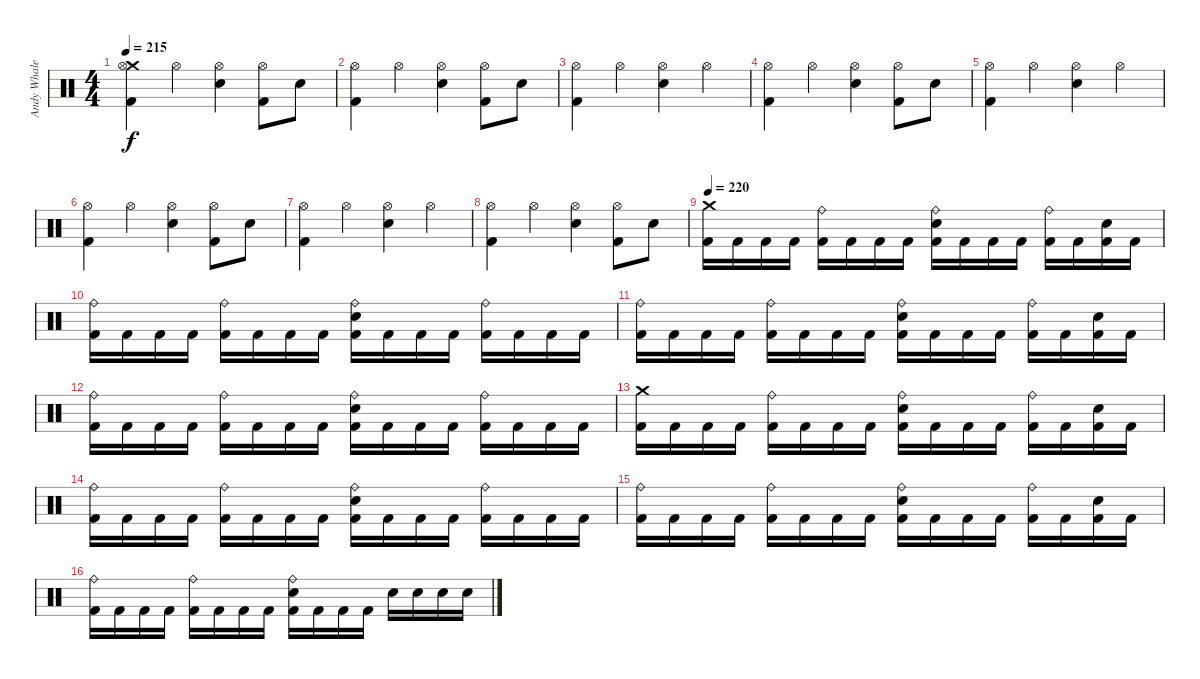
\track ("Andy Whale" "Andy Whale") {instrument percussion}
\staff {score}
\articulation defaults
\ts (4 4)
\tempo 215
\clef neutral
\ks c
("Crash medium (hit)" "Hi-Hat (open)" "Kick (hit) 2").4{dy f} "Hi-Hat (open)".4 ("Hi-Hat (open)" "Electric Snare (hit)").4 ("Hi-Hat (open)" "Kick (hit) 2").8 "Electric Snare (hit)".8 |
("Hi-Hat (open)" "Kick (hit) 2").4 "Hi-Hat (open)".4 ("Hi-Hat (open)" "Electric Snare (hit)").4 ("Hi-Hat (open)" "Kick (hit) 2").8 "Electric Snare (hit)".8 |
("Hi-Hat (open)" "Kick (hit) 2").4 "Hi-Hat (open)".4 ("Hi-Hat (open)" "Electric Snare (hit)").4 "Hi-Hat (open)".4 |
("Hi-Hat (open)" "Kick (hit) 2").4 "Hi-Hat (open)".4 ("Hi-Hat (open)" "Electric Snare (hit)").4 ("Hi-Hat (open)" "Kick (hit) 2").8 "Electric Snare (hit)".8 |
("Hi-Hat (open)" "Kick (hit) 2").4 "Hi-Hat (open)".4 ("Hi-Hat (open)" "Electric Snare (hit)").4 "Hi-Hat (open)".4 |
("Hi-Hat (open)" "Kick (hit) 2").4 "Hi-Hat (open)".4 ("Hi-Hat (open)" "Electric Snare (hit)").4 ("Hi-Hat (open)" "Kick (hit) 2").8 "Electric Snare (hit)".8 |
("Hi-Hat (open)" "Kick (hit) 2").4 "Hi-Hat (open)".4 ("Hi-Hat (open)" "Electric Snare (hit)").4 "Hi-Hat (open)".4 |
("Hi-Hat (open)" "Kick (hit) 2").4 "Hi-Hat (open)".4 ("Hi-Hat (open)" "Electric Snare (hit)").4 ("Hi-Hat (open)" "Kick (hit) 2").8 "Electric Snare (hit)".8 |
\tempo 220
("Crash medium (hit)" "Kick (hit) 2").16 "Kick (hit) 2".16 "Kick (hit) 2".16 "Kick (hit) 2".16 ("Ride (bell)" "Kick (hit) 2").16 "Kick (hit) 2".16 "Kick (hit) 2".16 "Kick (hit) 2".16 ("Ride (bell)" "Electric Snare (hit)" "Kick (hit) 2").16 "Kick (hit) 2".16 "Kick (hit) 2".16 "Kick (hit) 2".16 ("Ride (bell)" "Kick (hit) 2").16 "Kick (hit) 2".16 ("Electric Snare (hit)" "Kick (hit) 2").16 "Kick (hit) 2".16 |
("Ride (bell)" "Kick (hit) 2").16 "Kick (hit) 2".16 "Kick (hit) 2".16 "Kick (hit) 2".16 ("Ride (bell)" "Kick (hit) 2").16 "Kick (hit) 2".16 "Kick (hit) 2".16 "Kick (hit) 2".16 ("Ride (bell)" "Electric Snare (hit)" "Kick (hit) 2").16 "Kick (hit) 2".16 "Kick (hit) 2".16 "Kick (hit) 2".16 ("Ride (bell)" "Kick (hit) 2").16 "Kick (hit) 2".16 "Kick (hit) 2".16 "Kick (hit) 2".16 |
("Ride (bell)" "Kick (hit) 2").16 "Kick (hit) 2".16 "Kick (hit) 2".16 "Kick (hit) 2".16 ("Ride (bell)" "Kick (hit) 2").16 "Kick (hit) 2".16 "Kick (hit) 2".16 "Kick (hit) 2".16 ("Ride (bell)" "Electric Snare (hit)" "Kick (hit) 2").16 "Kick (hit) 2".16 "Kick (hit) 2".16 "Kick (hit) 2".16 ("Ride (bell)" "Kick (hit) 2").16 "Kick (hit) 2".16 ("Electric Snare (hit)" "Kick (hit) 2").16 "Kick (hit) 2".16 |
("Ride (bell)" "Kick (hit) 2").16 "Kick (hit) 2".16 "Kick (hit) 2".16 "Kick (hit) 2".16 ("Ride (bell)" "Kick (hit) 2").16 "Kick (hit) 2".16 "Kick (hit) 2".16 "Kick (hit) 2".16 ("Ride (bell)" "Electric Snare (hit)" "Kick (hit) 2").16 "Kick (hit) 2".16 "Kick (hit) 2".16 "Kick (hit) 2".16 ("Ride (bell)" "Kick (hit) 2").16 "Kick (hit) 2".16 "Kick (hit) 2".16 "Kick (hit) 2".16 |
("Crash medium (hit)" "Kick (hit) 2").16 "Kick (hit) 2".16 "Kick (hit) 2".16 "Kick (hit) 2".16 ("Ride (bell)" "Kick (hit) 2").16 "Kick (hit) 2".16 "Kick (hit) 2".16 "Kick (hit) 2".16 ("Ride (bell)" "Electric Snare (hit)" "Kick (hit) 2").16 "Kick (hit) 2".16 "Kick (hit) 2".16 "Kick (hit) 2".16 ("Ride (bell)" "Kick (hit) 2").16 "Kick (hit) 2".16 ("Electric Snare (hit)" "Kick (hit) 2").16 "Kick (hit) 2".16 |
("Ride (bell)" "Kick (hit) 2").16 "Kick (hit) 2".16 "Kick (hit) 2".16 "Kick (hit) 2".16 ("Ride (bell)" "Kick (hit) 2").16 "Kick (hit) 2".16 "Kick (hit) 2".16 "Kick (hit) 2".16 ("Ride (bell)" "Electric Snare (hit)" "Kick (hit) 2").16 "Kick (hit) 2".16 "Kick (hit) 2".16 "Kick (hit) 2".16 ("Ride (bell)" "Kick (hit) 2").16 "Kick (hit) 2".16 "Kick (hit) 2".16 "Kick (hit) 2".16 |
("Ride (bell)" "Kick (hit) 2").16 "Kick (hit) 2".16 "Kick (hit) 2".16 "Kick (hit) 2".16 ("Ride (bell)" "Kick (hit) 2").16 "Kick (hit) 2".16 "Kick (hit) 2".16 "Kick (hit) 2".16 ("Ride (bell)" "Electric Snare (hit)" "Kick (hit) 2").16 "Kick (hit) 2".16 "Kick (hit) 2".16 "Kick (hit) 2".16 ("Ride (bell)" "Kick (hit) 2").16 "Kick (hit) 2".16 ("Electric Snare (hit)" "Kick (hit) 2").16 "Kick (hit) 2".16 |
("Ride (bell)" "Kick (hit) 2").16 "Kick (hit) 2".16 "Kick (hit) 2".16 "Kick (hit) 2".16 ("Ride (bell)" "Kick (hit) 2").16 "Kick (hit) 2".16 "Kick (hit) 2".16 "Kick (hit) 2".16 ("Ride (bell)" "Electric Snare (hit)" "Kick (hit) 2").16 "Kick (hit) 2".16 "Kick (hit) 2".16 "Kick (hit) 2".16 "Electric Snare (hit)".16 "Electric Snare (hit)".16 "Electric Snare (hit)".16 "Electric Snare (hit)".16
